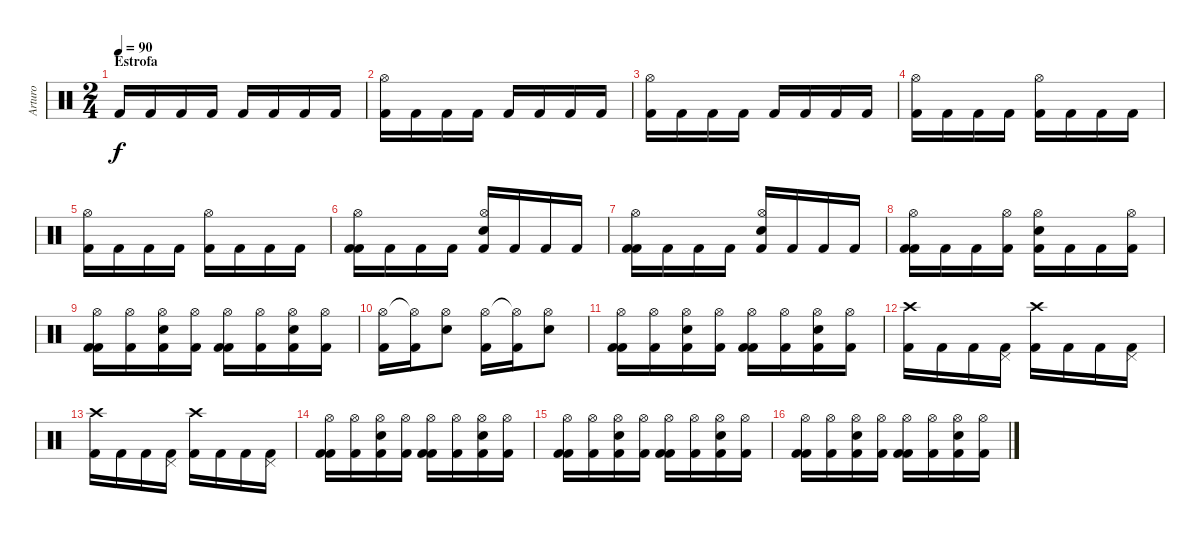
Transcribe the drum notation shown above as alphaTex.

\track ("Arturo" "Arturo") {instrument percussion}
\staff {score}
\articulation defaults
\ts (2 4)
\section ("" "Estrofa")
\tempo 90
\clef neutral
\ks c "Kick (hit) 2".16{dy f} "Kick (hit) 2".16 "Kick (hit) 2".16 "Kick (hit) 2".16 "Kick (hit) 2".16 "Kick (hit) 2".16 "Kick (hit) 2".16 "Kick (hit) 2".16
|
("Hi-Hat (open)" "Kick (hit) 2").16 "Kick (hit) 2".16 "Kick (hit) 2".16 "Kick (hit) 2".16 "Kick (hit) 2".16 "Kick (hit) 2".16 "Kick (hit) 2".16 "Kick (hit) 2".16 |
("Hi-Hat (open)" "Kick (hit) 2").16 "Kick (hit) 2".16 "Kick (hit) 2".16 "Kick (hit) 2".16 "Kick (hit) 2".16 "Kick (hit) 2".16 "Kick (hit) 2".16 "Kick (hit) 2".16 |
("Hi-Hat (open)" "Kick (hit) 2").16 "Kick (hit) 2".16 "Kick (hit) 2".16 "Kick (hit) 2".16 ("Hi-Hat (open)" "Kick (hit) 2").16 "Kick (hit) 2".16 "Kick (hit) 2".16 "Kick (hit) 2".16 |
("Hi-Hat (open)" "Kick (hit) 2").16 "Kick (hit) 2".16 "Kick (hit) 2".16 "Kick (hit) 2".16 ("Hi-Hat (open)" "Kick (hit) 2").16 "Kick (hit) 2".16 "Kick (hit) 2".16 "Kick (hit) 2".16 |
("Hi-Hat (open)" "Kick (hit) 2" "Kick (hit) 2").16 "Kick (hit) 2".16 "Kick (hit) 2".16 "Kick (hit) 2".16 ("Hi-Hat (open)" "Electric Snare (hit)" "Kick (hit) 2").16 "Kick (hit) 2".16 "Kick (hit) 2".16 "Kick (hit) 2".16 |
("Hi-Hat (open)" "Kick (hit) 2" "Kick (hit) 2").16 "Kick (hit) 2".16 "Kick (hit) 2".16 "Kick (hit) 2".16 ("Hi-Hat (open)" "Electric Snare (hit)" "Kick (hit) 2").16 "Kick (hit) 2".16 "Kick (hit) 2".16 "Kick (hit) 2".16 |
("Hi-Hat (open)" "Kick (hit) 2" "Kick (hit) 2").16 "Kick (hit) 2".16 "Kick (hit) 2".16 ("Hi-Hat (open)" "Kick (hit) 2").16 ("Hi-Hat (open)" "Electric Snare (hit)" "Kick (hit) 2").16 "Kick (hit) 2".16 "Kick (hit) 2".16 ("Hi-Hat (open)" "Kick (hit) 2").16 |
("Hi-Hat (open)" "Kick (hit) 2" "Kick (hit) 2").16 ("Hi-Hat (open)" "Kick (hit) 2").16 ("Hi-Hat (open)" "Electric Snare (hit)" "Kick (hit) 2").16 ("Hi-Hat (open)" "Kick (hit) 2").16 ("Hi-Hat (open)" "Kick (hit) 2" "Kick (hit) 2").16 ("Hi-Hat (open)" "Kick (hit) 2").16 ("Hi-Hat (open)" "Electric Snare (hit)" "Kick (hit) 2").16 ("Hi-Hat (open)" "Kick (hit) 2").16 |
("Hi-Hat (open)" "Kick (hit) 2").16 ("Hi-Hat (open)"{t} "Kick (hit) 2").16 ("Hi-Hat (open)" "Electric Snare (hit)").8 ("Hi-Hat (open)" "Kick (hit) 2").16 ("Hi-Hat (open)"{t} "Kick (hit) 2").16 ("Hi-Hat (open)" "Electric Snare (hit)").8 |
("Hi-Hat (open)" "Kick (hit) 2" "Kick (hit) 2").16 ("Hi-Hat (open)" "Kick (hit) 2").16 ("Hi-Hat (open)" "Electric Snare (hit)" "Kick (hit) 2").16 ("Hi-Hat (open)" "Kick (hit) 2").16 ("Hi-Hat (open)" "Kick (hit) 2" "Kick (hit) 2").16 ("Hi-Hat (open)" "Kick (hit) 2").16 ("Hi-Hat (open)" "Electric Snare (hit)" "Kick (hit) 2").16 ("Hi-Hat (open)" "Kick (hit) 2").16 |
("Crash high (hit)" "Kick (hit) 2").16 "Kick (hit) 2".16 "Kick (hit) 2".16 ("Pedal Hi-Hat (hit)" "Kick (hit) 2").16 ("Crash high (hit)" "Kick (hit) 2").16 "Kick (hit) 2".16 "Kick (hit) 2".16 ("Pedal Hi-Hat (hit)" "Kick (hit) 2").16 |
("Crash high (hit)" "Kick (hit) 2").16 "Kick (hit) 2".16 "Kick (hit) 2".16 ("Pedal Hi-Hat (hit)" "Kick (hit) 2").16 ("Crash high (hit)" "Kick (hit) 2").16 "Kick (hit) 2".16 "Kick (hit) 2".16 ("Pedal Hi-Hat (hit)" "Kick (hit) 2").16 |
("Hi-Hat (open)" "Kick (hit) 2" "Kick (hit) 2").16 ("Hi-Hat (open)" "Kick (hit) 2").16 ("Hi-Hat (open)" "Electric Snare (hit)" "Kick (hit) 2").16 ("Hi-Hat (open)" "Kick (hit) 2").16 ("Hi-Hat (open)" "Kick (hit) 2" "Kick (hit) 2").16 ("Hi-Hat (open)" "Kick (hit) 2").16 ("Hi-Hat (open)" "Electric Snare (hit)" "Kick (hit) 2").16 ("Hi-Hat (open)" "Kick (hit) 2").16 |
("Hi-Hat (open)" "Kick (hit) 2" "Kick (hit) 2").16 ("Hi-Hat (open)" "Kick (hit) 2").16 ("Hi-Hat (open)" "Electric Snare (hit)" "Kick (hit) 2").16 ("Hi-Hat (open)" "Kick (hit) 2").16 ("Hi-Hat (open)" "Kick (hit) 2" "Kick (hit) 2").16 ("Hi-Hat (open)" "Kick (hit) 2").16 ("Hi-Hat (open)" "Electric Snare (hit)" "Kick (hit) 2").16 ("Hi-Hat (open)" "Kick (hit) 2").16 |
("Hi-Hat (open)" "Kick (hit) 2" "Kick (hit) 2").16 ("Hi-Hat (open)" "Kick (hit) 2").16 ("Hi-Hat (open)" "Electric Snare (hit)" "Kick (hit) 2").16 ("Hi-Hat (open)" "Kick (hit) 2").16 ("Hi-Hat (open)" "Kick (hit) 2" "Kick (hit) 2").16 ("Hi-Hat (open)" "Kick (hit) 2").16 ("Hi-Hat (open)" "Electric Snare (hit)" "Kick (hit) 2").16 ("Hi-Hat (open)" "Kick (hit) 2").16
